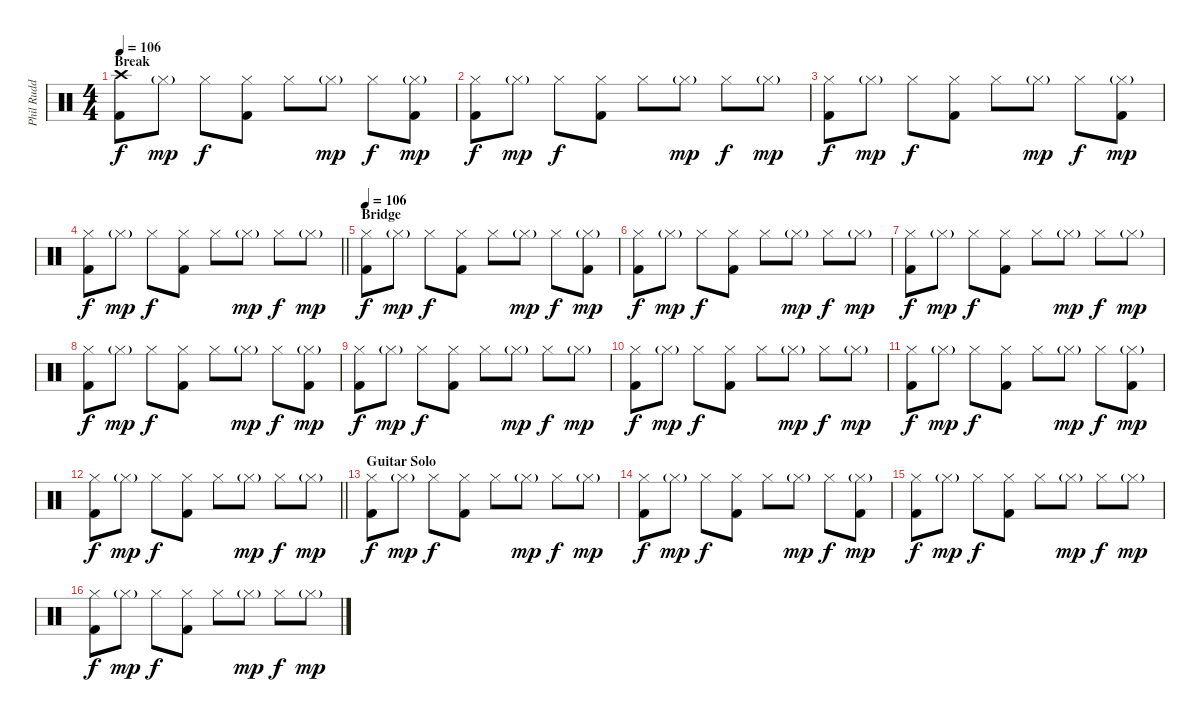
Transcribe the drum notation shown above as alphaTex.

\track ("Phil Rudd" "Phil Rudd") {instrument percussion}
\staff {score}
\articulation defaults
\ts (4 4)
\section ("" "Break ")
\tempo 106
\clef neutral
\ks c
("Crash high (hit)" "Kick (hit) 2").8{dy f} "Hi-Hat (closed)"{g}.8{dy mp} "Hi-Hat (closed)".8{dy f} ("Hi-Hat (closed)" "Kick (hit) 2").8 "Hi-Hat (closed)".8 "Hi-Hat (closed)"{g}.8{dy mp} "Hi-Hat (closed)".8{dy f} ("Hi-Hat (closed)"{g} "Kick (hit) 2").8{dy mp} |
("Hi-Hat (closed)" "Kick (hit) 2").8{dy f} "Hi-Hat (closed)"{g}.8{dy mp} "Hi-Hat (closed)".8{dy f} ("Hi-Hat (closed)" "Kick (hit) 2").8 "Hi-Hat (closed)".8 "Hi-Hat (closed)"{g}.8{dy mp} "Hi-Hat (closed)".8{dy f} "Hi-Hat (closed)"{g}.8{dy mp} |
("Hi-Hat (closed)" "Kick (hit) 2").8{dy f} "Hi-Hat (closed)"{g}.8{dy mp} "Hi-Hat (closed)".8{dy f} ("Hi-Hat (closed)" "Kick (hit) 2").8 "Hi-Hat (closed)".8 "Hi-Hat (closed)"{g}.8{dy mp} "Hi-Hat (closed)".8{dy f} ("Hi-Hat (closed)"{g} "Kick (hit) 2").8{dy mp} |
\barLineRight lightlight
("Hi-Hat (closed)" "Kick (hit) 2").8{dy f} "Hi-Hat (closed)"{g}.8{dy mp} "Hi-Hat (closed)".8{dy f} ("Hi-Hat (closed)" "Kick (hit) 2").8 "Hi-Hat (closed)".8 "Hi-Hat (closed)"{g}.8{dy mp} "Hi-Hat (closed)".8{dy f} "Hi-Hat (closed)"{g}.8{dy mp} |
\section ("" "Bridge")
\tempo 108
\tempo 106
("Hi-Hat (closed)" "Kick (hit) 2").8{dy f} "Hi-Hat (closed)"{g}.8{dy mp} "Hi-Hat (closed)".8{dy f} ("Hi-Hat (closed)" "Kick (hit) 2").8 "Hi-Hat (closed)".8 "Hi-Hat (closed)"{g}.8{dy mp} "Hi-Hat (closed)".8{dy f} ("Hi-Hat (closed)"{g} "Kick (hit) 2").8{dy mp} |
("Hi-Hat (closed)" "Kick (hit) 2").8{dy f} "Hi-Hat (closed)"{g}.8{dy mp} "Hi-Hat (closed)".8{dy f} ("Hi-Hat (closed)" "Kick (hit) 2").8 "Hi-Hat (closed)".8 "Hi-Hat (closed)"{g}.8{dy mp} "Hi-Hat (closed)".8{dy f} "Hi-Hat (closed)"{g}.8{dy mp} |
("Hi-Hat (closed)" "Kick (hit) 2").8{dy f} "Hi-Hat (closed)"{g}.8{dy mp} "Hi-Hat (closed)".8{dy f} ("Hi-Hat (closed)" "Kick (hit) 2").8 "Hi-Hat (closed)".8 "Hi-Hat (closed)"{g}.8{dy mp} "Hi-Hat (closed)".8{dy f} "Hi-Hat (closed)"{g}.8{dy mp} |
("Hi-Hat (closed)" "Kick (hit) 2").8{dy f} "Hi-Hat (closed)"{g}.8{dy mp} "Hi-Hat (closed)".8{dy f} ("Hi-Hat (closed)" "Kick (hit) 2").8 "Hi-Hat (closed)".8 "Hi-Hat (closed)"{g}.8{dy mp} "Hi-Hat (closed)".8{dy f} ("Hi-Hat (closed)"{g} "Kick (hit) 2").8{dy mp} |
("Hi-Hat (closed)" "Kick (hit) 2").8{dy f} "Hi-Hat (closed)"{g}.8{dy mp} "Hi-Hat (closed)".8{dy f} ("Hi-Hat (closed)" "Kick (hit) 2").8 "Hi-Hat (closed)".8 "Hi-Hat (closed)"{g}.8{dy mp} "Hi-Hat (closed)".8{dy f} "Hi-Hat (closed)"{g}.8{dy mp} |
("Hi-Hat (closed)" "Kick (hit) 2").8{dy f} "Hi-Hat (closed)"{g}.8{dy mp} "Hi-Hat (closed)".8{dy f} ("Hi-Hat (closed)" "Kick (hit) 2").8 "Hi-Hat (closed)".8 "Hi-Hat (closed)"{g}.8{dy mp} "Hi-Hat (closed)".8{dy f} "Hi-Hat (closed)"{g}.8{dy mp} |
("Hi-Hat (closed)" "Kick (hit) 2").8{dy f} "Hi-Hat (closed)"{g}.8{dy mp} "Hi-Hat (closed)".8{dy f} ("Hi-Hat (closed)" "Kick (hit) 2").8 "Hi-Hat (closed)".8 "Hi-Hat (closed)"{g}.8{dy mp} "Hi-Hat (closed)".8{dy f} ("Hi-Hat (closed)"{g} "Kick (hit) 2").8{dy mp} |
\barLineRight lightlight
("Hi-Hat (closed)" "Kick (hit) 2").8{dy f} "Hi-Hat (closed)"{g}.8{dy mp} "Hi-Hat (closed)".8{dy f} ("Hi-Hat (closed)" "Kick (hit) 2").8 "Hi-Hat (closed)".8 "Hi-Hat (closed)"{g}.8{dy mp} "Hi-Hat (closed)".8{dy f} "Hi-Hat (closed)"{g}.8{dy mp} |
\section ("" "Guitar Solo")
("Hi-Hat (closed)" "Kick (hit) 2").8{dy f} "Hi-Hat (closed)"{g}.8{dy mp} "Hi-Hat (closed)".8{dy f} ("Hi-Hat (closed)" "Kick (hit) 2").8 "Hi-Hat (closed)".8 "Hi-Hat (closed)"{g}.8{dy mp} "Hi-Hat (closed)".8{dy f} "Hi-Hat (closed)"{g}.8{dy mp} |
("Hi-Hat (closed)" "Kick (hit) 2").8{dy f} "Hi-Hat (closed)"{g}.8{dy mp} "Hi-Hat (closed)".8{dy f} ("Hi-Hat (closed)" "Kick (hit) 2").8 "Hi-Hat (closed)".8 "Hi-Hat (closed)"{g}.8{dy mp} "Hi-Hat (closed)".8{dy f} ("Hi-Hat (closed)"{g} "Kick (hit) 2").8{dy mp} |
("Hi-Hat (closed)" "Kick (hit) 2").8{dy f} "Hi-Hat (closed)"{g}.8{dy mp} "Hi-Hat (closed)".8{dy f} ("Hi-Hat (closed)" "Kick (hit) 2").8 "Hi-Hat (closed)".8 "Hi-Hat (closed)"{g}.8{dy mp} "Hi-Hat (closed)".8{dy f} "Hi-Hat (closed)"{g}.8{dy mp} |
("Hi-Hat (closed)" "Kick (hit) 2").8{dy f} "Hi-Hat (closed)"{g}.8{dy mp} "Hi-Hat (closed)".8{dy f} ("Hi-Hat (closed)" "Kick (hit) 2").8 "Hi-Hat (closed)".8 "Hi-Hat (closed)"{g}.8{dy mp} "Hi-Hat (closed)".8{dy f} "Hi-Hat (closed)"{g}.8{dy mp}
